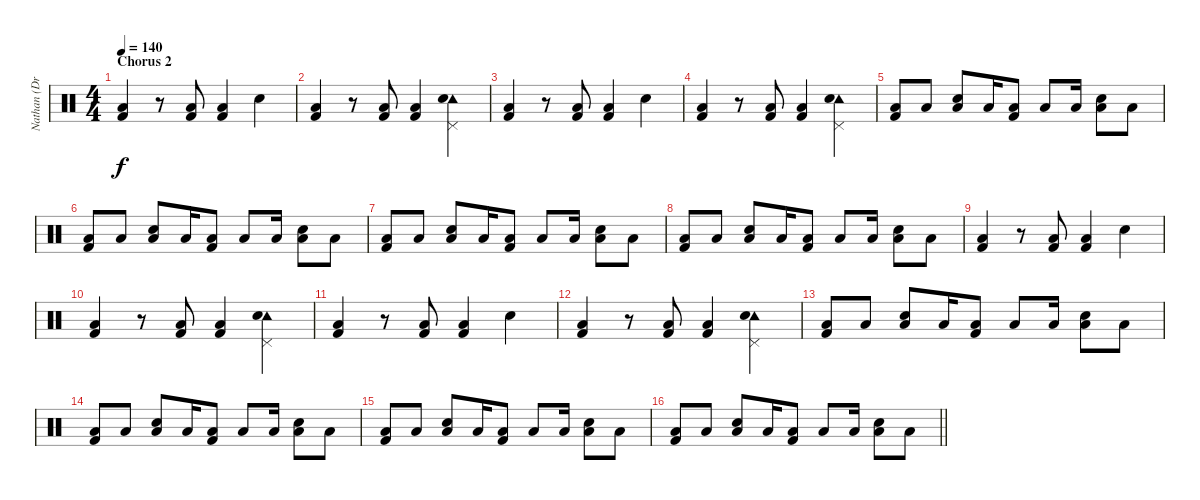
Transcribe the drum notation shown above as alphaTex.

\track ("Nathan (Drums)" "Nathan (Dr") {instrument percussion}
\staff {score}
\articulation defaults
\ts (4 4)
\section ("" "Chorus 2")
\tempo 140
\clef neutral
\ks c
("Low Floor Tom (hit)" "Kick (hit) 2").4{dy f} r.8 ("Low Floor Tom (hit)" "Kick (hit) 2").8 ("Low Floor Tom (hit)" "Kick (hit) 2").4 "Electric Snare (hit)".4 |
("Low Floor Tom (hit)" "Kick (hit) 2").4 r.8 ("Low Floor Tom (hit)" "Kick (hit) 2").8 ("Low Floor Tom (hit)" "Kick (hit) 2").4 ("Pedal Hi-Hat (hit)" "Tambourine (hit)" "Electric Snare (hit)").4 |
("Low Floor Tom (hit)" "Kick (hit) 2").4 r.8 ("Low Floor Tom (hit)" "Kick (hit) 2").8 ("Low Floor Tom (hit)" "Kick (hit) 2").4 "Electric Snare (hit)".4 |
("Low Floor Tom (hit)" "Kick (hit) 2").4 r.8 ("Low Floor Tom (hit)" "Kick (hit) 2").8 ("Low Floor Tom (hit)" "Kick (hit) 2").4 ("Pedal Hi-Hat (hit)" "Tambourine (hit)" "Electric Snare (hit)").4 |
("Low Floor Tom (hit)" "Kick (hit) 2").8 "Low Floor Tom (hit)".8 ("Low Floor Tom (hit)" "Electric Snare (hit)").8 "Low Floor Tom (hit)".16 ("Low Tom (hit)" "Kick (hit) 2").8 "Low Tom (hit)".8 "Low Tom (hit)".16 ("Low Floor Tom (hit)" "Electric Snare (hit)").8 "Low Floor Tom (hit)".8 |
("Low Floor Tom (hit)" "Kick (hit) 2").8 "Low Floor Tom (hit)".8 ("Low Floor Tom (hit)" "Electric Snare (hit)").8 "Low Floor Tom (hit)".16 ("Low Tom (hit)" "Kick (hit) 2").8 "Low Tom (hit)".8 "Low Tom (hit)".16 ("Low Floor Tom (hit)" "Electric Snare (hit)").8 "Low Floor Tom (hit)".8 |
("Low Floor Tom (hit)" "Kick (hit) 2").8 "Low Floor Tom (hit)".8 ("Low Floor Tom (hit)" "Electric Snare (hit)").8 "Low Floor Tom (hit)".16 ("Low Tom (hit)" "Kick (hit) 2").8 "Low Tom (hit)".8 "Low Tom (hit)".16 ("Low Floor Tom (hit)" "Electric Snare (hit)").8 "Low Floor Tom (hit)".8 |
("Low Floor Tom (hit)" "Kick (hit) 2").8 "Low Floor Tom (hit)".8 ("Low Floor Tom (hit)" "Electric Snare (hit)").8 "Low Floor Tom (hit)".16 ("Low Tom (hit)" "Kick (hit) 2").8 "Low Tom (hit)".8 "Low Tom (hit)".16 ("Low Floor Tom (hit)" "Electric Snare (hit)").8 "Low Floor Tom (hit)".8 |
("Low Floor Tom (hit)" "Kick (hit) 2").4 r.8 ("Low Floor Tom (hit)" "Kick (hit) 2").8 ("Low Floor Tom (hit)" "Kick (hit) 2").4 "Electric Snare (hit)".4 |
("Low Floor Tom (hit)" "Kick (hit) 2").4 r.8 ("Low Floor Tom (hit)" "Kick (hit) 2").8 ("Low Floor Tom (hit)" "Kick (hit) 2").4 ("Pedal Hi-Hat (hit)" "Tambourine (hit)" "Electric Snare (hit)").4 |
("Low Floor Tom (hit)" "Kick (hit) 2").4 r.8 ("Low Floor Tom (hit)" "Kick (hit) 2").8 ("Low Floor Tom (hit)" "Kick (hit) 2").4 "Electric Snare (hit)".4 |
("Low Floor Tom (hit)" "Kick (hit) 2").4 r.8 ("Low Floor Tom (hit)" "Kick (hit) 2").8 ("Low Floor Tom (hit)" "Kick (hit) 2").4 ("Pedal Hi-Hat (hit)" "Tambourine (hit)" "Electric Snare (hit)").4 |
("Low Floor Tom (hit)" "Kick (hit) 2").8 "Low Floor Tom (hit)".8 ("Low Floor Tom (hit)" "Electric Snare (hit)").8 "Low Floor Tom (hit)".16 ("Low Tom (hit)" "Kick (hit) 2").8 "Low Tom (hit)".8 "Low Tom (hit)".16 ("Low Floor Tom (hit)" "Electric Snare (hit)").8 "Low Floor Tom (hit)".8 |
("Low Floor Tom (hit)" "Kick (hit) 2").8 "Low Floor Tom (hit)".8 ("Low Floor Tom (hit)" "Electric Snare (hit)").8 "Low Floor Tom (hit)".16 ("Low Tom (hit)" "Kick (hit) 2").8 "Low Tom (hit)".8 "Low Tom (hit)".16 ("Low Floor Tom (hit)" "Electric Snare (hit)").8 "Low Floor Tom (hit)".8 |
("Low Floor Tom (hit)" "Kick (hit) 2").8 "Low Floor Tom (hit)".8 ("Low Floor Tom (hit)" "Electric Snare (hit)").8 "Low Floor Tom (hit)".16 ("Low Tom (hit)" "Kick (hit) 2").8 "Low Tom (hit)".8 "Low Tom (hit)".16 ("Low Floor Tom (hit)" "Electric Snare (hit)").8 "Low Floor Tom (hit)".8 |
\barLineRight lightlight
("Low Floor Tom (hit)" "Kick (hit) 2").8 "Low Floor Tom (hit)".8 ("Low Floor Tom (hit)" "Electric Snare (hit)").8 "Low Floor Tom (hit)".16 ("Low Tom (hit)" "Kick (hit) 2").8 "Low Tom (hit)".8 "Low Tom (hit)".16 ("Low Floor Tom (hit)" "Electric Snare (hit)").8 "Low Floor Tom (hit)".8
